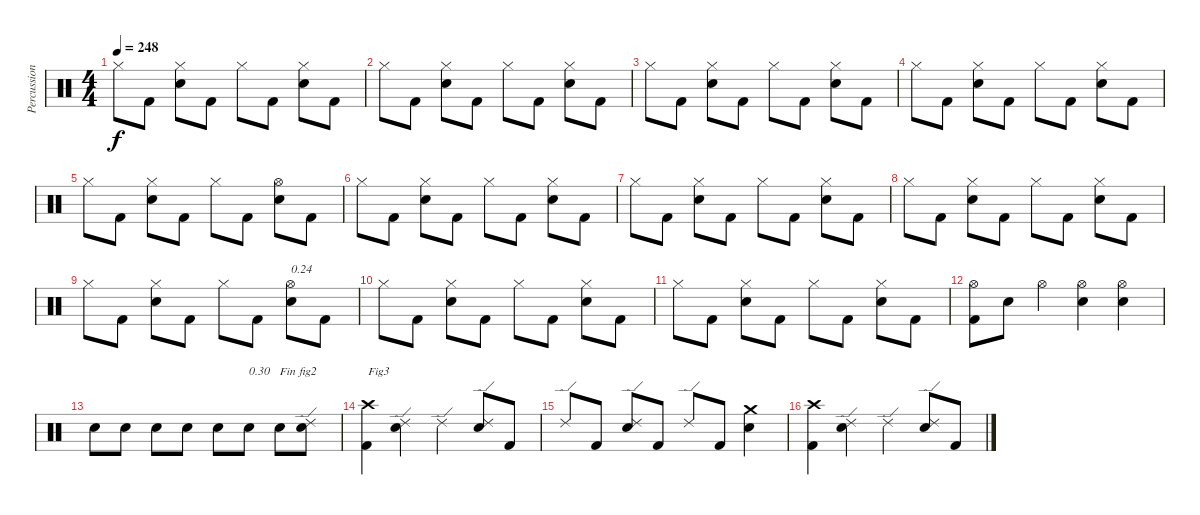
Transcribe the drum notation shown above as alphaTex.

\track ("Percussions" "Percussion") {instrument percussion}
\staff {score}
\articulation defaults
\ts (4 4)
\tempo 248
\clef neutral
\ks c "Hi-Hat (closed)".8{dy f} "Kick (hit) 2".8
("Electric Snare (hit)" "Hi-Hat (closed)").8 "Kick (hit) 2".8 "Hi-Hat (closed)".8 "Kick (hit) 2".8 ("Electric Snare (hit)" "Hi-Hat (closed)").8 "Kick (hit) 2".8 |
"Hi-Hat (closed)".8 "Kick (hit) 2".8 ("Electric Snare (hit)" "Hi-Hat (closed)").8 "Kick (hit) 2".8 "Hi-Hat (closed)".8 "Kick (hit) 2".8 ("Electric Snare (hit)" "Hi-Hat (closed)").8 "Kick (hit) 2".8 |
"Hi-Hat (closed)".8 "Kick (hit) 2".8 ("Electric Snare (hit)" "Hi-Hat (closed)").8 "Kick (hit) 2".8 "Hi-Hat (closed)".8 "Kick (hit) 2".8 ("Electric Snare (hit)" "Hi-Hat (closed)").8 "Kick (hit) 2".8 |
"Hi-Hat (closed)".8 "Kick (hit) 2".8 ("Electric Snare (hit)" "Hi-Hat (closed)").8 "Kick (hit) 2".8 "Hi-Hat (closed)".8 "Kick (hit) 2".8 ("Electric Snare (hit)" "Hi-Hat (closed)").8 "Kick (hit) 2".8 |
"Hi-Hat (closed)".8 "Kick (hit) 2".8 ("Electric Snare (hit)" "Hi-Hat (closed)").8 "Kick (hit) 2".8 "Hi-Hat (closed)".8 "Kick (hit) 2".8 ("Electric Snare (hit)" "Hi-Hat (open)").8 "Kick (hit) 2".8 |
"Hi-Hat (closed)".8 "Kick (hit) 2".8 ("Electric Snare (hit)" "Hi-Hat (closed)").8 "Kick (hit) 2".8 "Hi-Hat (closed)".8 "Kick (hit) 2".8 ("Electric Snare (hit)" "Hi-Hat (closed)").8 "Kick (hit) 2".8 |
"Hi-Hat (closed)".8 "Kick (hit) 2".8 ("Electric Snare (hit)" "Hi-Hat (closed)").8 "Kick (hit) 2".8 "Hi-Hat (closed)".8 "Kick (hit) 2".8 ("Electric Snare (hit)" "Hi-Hat (closed)").8 "Kick (hit) 2".8 |
"Hi-Hat (closed)".8 "Kick (hit) 2".8 ("Electric Snare (hit)" "Hi-Hat (closed)").8 "Kick (hit) 2".8 "Hi-Hat (closed)".8 "Kick (hit) 2".8 ("Electric Snare (hit)" "Hi-Hat (closed)").8 "Kick (hit) 2".8 |
"Hi-Hat (closed)".8 "Kick (hit) 2".8 ("Electric Snare (hit)" "Hi-Hat (closed)").8 "Kick (hit) 2".8 "Hi-Hat (closed)".8 "Kick (hit) 2".8 ("Electric Snare (hit)" "Hi-Hat (open)").8{txt "0.24"} "Kick (hit) 2".8 |
"Hi-Hat (closed)".8 "Kick (hit) 2".8 ("Electric Snare (hit)" "Hi-Hat (closed)").8 "Kick (hit) 2".8 "Hi-Hat (closed)".8 "Kick (hit) 2".8 ("Electric Snare (hit)" "Hi-Hat (closed)").8 "Kick (hit) 2".8 |
"Hi-Hat (closed)".8 "Kick (hit) 2".8 ("Electric Snare (hit)" "Hi-Hat (closed)").8 "Kick (hit) 2".8 "Hi-Hat (closed)".8 "Kick (hit) 2".8 ("Electric Snare (hit)" "Hi-Hat (closed)").8 "Kick (hit) 2".8 |
("Kick (hit) 2" "Hi-Hat (open)").8 "Electric Snare (hit)".8 "Hi-Hat (open)".4 ("Electric Snare (hit)" "Hi-Hat (open)").4 ("Electric Snare (hit)" "Hi-Hat (open)").4 |
"Electric Snare (hit)".8 "Electric Snare (hit)".8 "Electric Snare (hit)".8 "Electric Snare (hit)".8 "Electric Snare (hit)".8 "Electric Snare (hit)".8{txt "0.30"} "Electric Snare (hit)".8{txt "Fin fig2"} ("Electric Snare (hit)" "Ride (edge) 2").8 |
("Kick (hit) 2" "Crash high (hit)").4{txt "Fig3"} ("Electric Snare (hit)" "Ride (edge) 2").4 "Ride (edge) 2".4 ("Electric Snare (hit)" "Ride (edge) 2").8 "Kick (hit) 2".8 |
"Ride (edge) 2".8 "Kick (hit) 2".8 ("Electric Snare (hit)" "Ride (edge) 2").8 "Kick (hit) 2".8 "Ride (edge) 2".8 "Kick (hit) 2".8 ("Electric Snare (hit)" "Crash medium (hit)").4 |
("Kick (hit) 2" "Crash high (hit)").4 ("Electric Snare (hit)" "Ride (edge) 2").4 "Ride (edge) 2".4 ("Electric Snare (hit)" "Ride (edge) 2").8 "Kick (hit) 2".8
